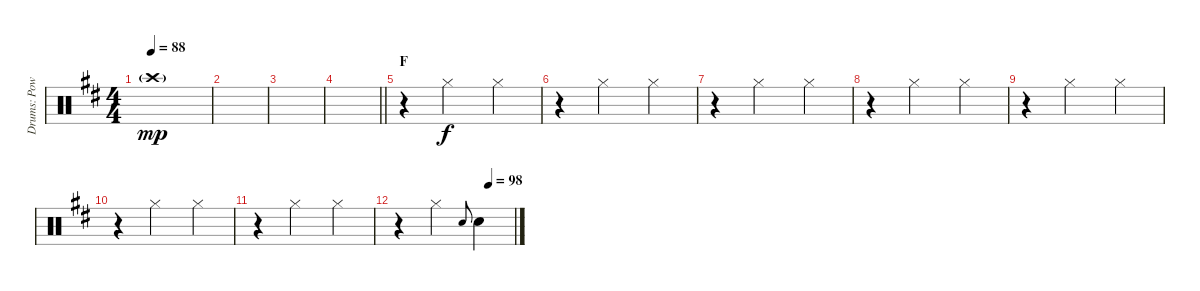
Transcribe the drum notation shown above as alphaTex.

\track ("Drums: Powell" "Drums: Pow") {instrument percussion}
\staff {score}
\articulation defaults
\ts (4 4)
\tempo 88
\clef neutral
\ks d "Crash high (hit)"{g}.1{dy mp}
|
|
|
\barLineRight lightlight
|
\section ("" "F")
r.4 "Hi-Hat (closed)".2{dy f} "Hi-Hat (closed)".4 |
r.4 "Hi-Hat (closed)".2 "Hi-Hat (closed)".4 |
r.4 "Hi-Hat (closed)".2 "Hi-Hat (closed)".4 |
r.4 "Hi-Hat (closed)".2 "Hi-Hat (closed)".4 |
r.4 "Hi-Hat (closed)".2 "Hi-Hat (closed)".4 |
r.4 "Hi-Hat (closed)".2 "Hi-Hat (closed)".4 |
r.4 "Hi-Hat (closed)".2 "Hi-Hat (closed)".4 |
\tempo (98 0.78125)
r.4 "Hi-Hat (closed)".2 "Electric Snare (hit)".8{gr onbeat} "Snare (hit) 2".4
